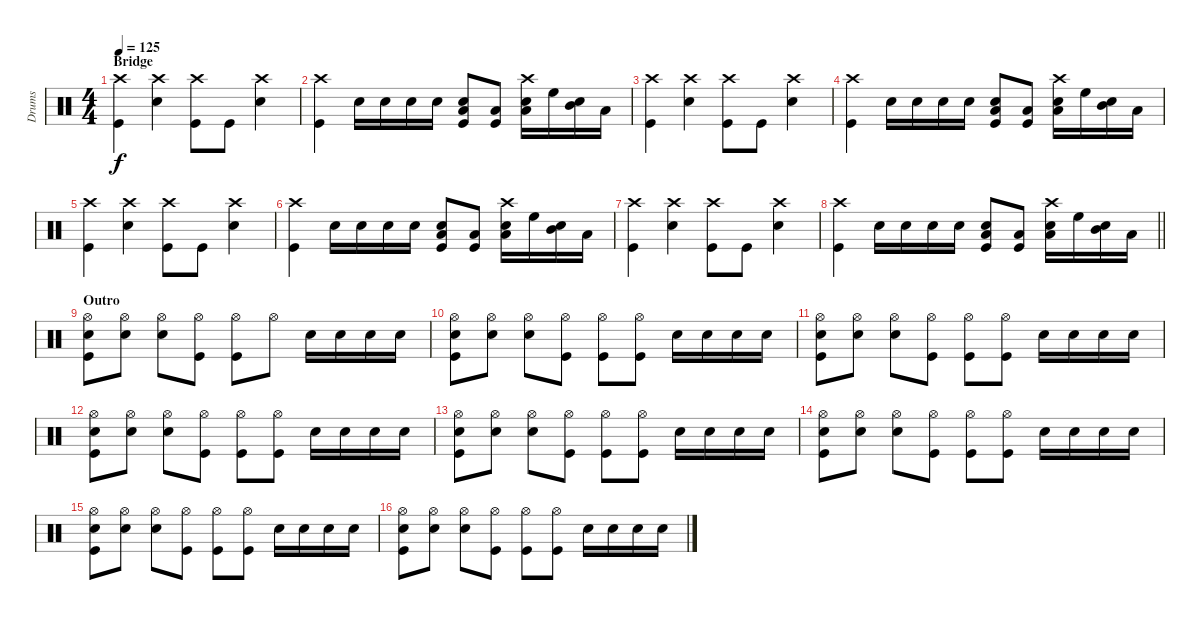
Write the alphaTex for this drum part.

\track ("Drums" "Drums") {instrument percussion}
\staff {score}
\articulation defaults
\ts (4 4)
\section ("" "Bridge")
\tempo 125
\clef neutral
\ks c
("Crash high (hit)" "Kick (hit)").4{dy f} ("Crash high (hit)" "Electric Snare (hit)").4 ("Crash high (hit)" "Kick (hit)").8 "Kick (hit)".8 ("Crash high (hit)" "Electric Snare (hit)").4 |
("Crash high (hit)" "Kick (hit)").4 "Electric Snare (hit)".16 "Electric Snare (hit)".16 "Electric Snare (hit)".16 "Electric Snare (hit)".16 ("Low Tom (hit)" "Electric Snare (hit)" "Kick (hit)").8 ("Low Tom (hit)" "Kick (hit)").8 ("Crash high (hit)" "Low Tom (hit)" "Electric Snare (hit)").16 "High Floor Tom (hit)".16 ("Mid Tom (hit)" "Electric Snare (hit)").16 "Low Tom (hit)".16 |
("Crash high (hit)" "Kick (hit)").4 ("Crash high (hit)" "Electric Snare (hit)").4 ("Crash high (hit)" "Kick (hit)").8 "Kick (hit)".8 ("Crash high (hit)" "Electric Snare (hit)").4 |
("Crash high (hit)" "Kick (hit)").4 "Electric Snare (hit)".16 "Electric Snare (hit)".16 "Electric Snare (hit)".16 "Electric Snare (hit)".16 ("Low Tom (hit)" "Electric Snare (hit)" "Kick (hit)").8 ("Low Tom (hit)" "Kick (hit)").8 ("Crash high (hit)" "Low Tom (hit)" "Electric Snare (hit)").16 "High Floor Tom (hit)".16 ("Mid Tom (hit)" "Electric Snare (hit)").16 "Low Tom (hit)".16 |
("Crash high (hit)" "Kick (hit)").4 ("Crash high (hit)" "Electric Snare (hit)").4 ("Crash high (hit)" "Kick (hit)").8 "Kick (hit)".8 ("Crash high (hit)" "Electric Snare (hit)").4 |
("Crash high (hit)" "Kick (hit)").4 "Electric Snare (hit)".16 "Electric Snare (hit)".16 "Electric Snare (hit)".16 "Electric Snare (hit)".16 ("Low Tom (hit)" "Electric Snare (hit)" "Kick (hit)").8 ("Low Tom (hit)" "Kick (hit)").8 ("Crash high (hit)" "Low Tom (hit)" "Electric Snare (hit)").16 "High Floor Tom (hit)".16 ("Mid Tom (hit)" "Electric Snare (hit)").16 "Low Tom (hit)".16 |
("Crash high (hit)" "Kick (hit)").4 ("Crash high (hit)" "Electric Snare (hit)").4 ("Crash high (hit)" "Kick (hit)").8 "Kick (hit)".8 ("Crash high (hit)" "Electric Snare (hit)").4 |
\barLineRight lightlight
("Crash high (hit)" "Kick (hit)").4 "Electric Snare (hit)".16 "Electric Snare (hit)".16 "Electric Snare (hit)".16 "Electric Snare (hit)".16 ("Low Tom (hit)" "Electric Snare (hit)" "Kick (hit)").8 ("Low Tom (hit)" "Kick (hit)").8 ("Crash high (hit)" "Low Tom (hit)" "Electric Snare (hit)").16 "High Floor Tom (hit)".16 ("Mid Tom (hit)" "Electric Snare (hit)").16 "Low Tom (hit)".16 |
\section ("" "Outro")
("Hi-Hat (open)" "Electric Snare (hit)" "Kick (hit)").8 ("Hi-Hat (open)" "Electric Snare (hit)").8 ("Hi-Hat (open)" "Electric Snare (hit)").8 ("Hi-Hat (open)" "Kick (hit)").8 ("Hi-Hat (open)" "Kick (hit)").8 "Hi-Hat (open)".8 "Electric Snare (hit)".16 "Electric Snare (hit)".16 "Electric Snare (hit)".16 "Electric Snare (hit)".16 |
("Hi-Hat (open)" "Electric Snare (hit)" "Kick (hit)").8 ("Hi-Hat (open)" "Electric Snare (hit)").8 ("Hi-Hat (open)" "Electric Snare (hit)").8 ("Hi-Hat (open)" "Kick (hit)").8 ("Hi-Hat (open)" "Kick (hit)").8 ("Hi-Hat (open)" "Kick (hit)").8 "Electric Snare (hit)".16 "Electric Snare (hit)".16 "Electric Snare (hit)".16 "Electric Snare (hit)".16 |
("Hi-Hat (open)" "Electric Snare (hit)" "Kick (hit)").8 ("Hi-Hat (open)" "Electric Snare (hit)").8 ("Hi-Hat (open)" "Electric Snare (hit)").8 ("Hi-Hat (open)" "Kick (hit)").8 ("Hi-Hat (open)" "Kick (hit)").8 ("Hi-Hat (open)" "Kick (hit)").8 "Electric Snare (hit)".16 "Electric Snare (hit)".16 "Electric Snare (hit)".16 "Electric Snare (hit)".16 |
("Hi-Hat (open)" "Electric Snare (hit)" "Kick (hit)").8 ("Hi-Hat (open)" "Electric Snare (hit)").8 ("Hi-Hat (open)" "Electric Snare (hit)").8 ("Hi-Hat (open)" "Kick (hit)").8 ("Hi-Hat (open)" "Kick (hit)").8 ("Hi-Hat (open)" "Kick (hit)").8 "Electric Snare (hit)".16 "Electric Snare (hit)".16 "Electric Snare (hit)".16 "Electric Snare (hit)".16 |
("Hi-Hat (open)" "Electric Snare (hit)" "Kick (hit)").8 ("Hi-Hat (open)" "Electric Snare (hit)").8 ("Hi-Hat (open)" "Electric Snare (hit)").8 ("Hi-Hat (open)" "Kick (hit)").8 ("Hi-Hat (open)" "Kick (hit)").8 ("Hi-Hat (open)" "Kick (hit)").8 "Electric Snare (hit)".16 "Electric Snare (hit)".16 "Electric Snare (hit)".16 "Electric Snare (hit)".16 |
("Hi-Hat (open)" "Electric Snare (hit)" "Kick (hit)").8 ("Hi-Hat (open)" "Electric Snare (hit)").8 ("Hi-Hat (open)" "Electric Snare (hit)").8 ("Hi-Hat (open)" "Kick (hit)").8 ("Hi-Hat (open)" "Kick (hit)").8 ("Hi-Hat (open)" "Kick (hit)").8 "Electric Snare (hit)".16 "Electric Snare (hit)".16 "Electric Snare (hit)".16 "Electric Snare (hit)".16 |
("Hi-Hat (open)" "Electric Snare (hit)" "Kick (hit)").8 ("Hi-Hat (open)" "Electric Snare (hit)").8 ("Hi-Hat (open)" "Electric Snare (hit)").8 ("Hi-Hat (open)" "Kick (hit)").8 ("Hi-Hat (open)" "Kick (hit)").8 ("Hi-Hat (open)" "Kick (hit)").8 "Electric Snare (hit)".16 "Electric Snare (hit)".16 "Electric Snare (hit)".16 "Electric Snare (hit)".16 |
("Hi-Hat (open)" "Electric Snare (hit)" "Kick (hit)").8 ("Hi-Hat (open)" "Electric Snare (hit)").8 ("Hi-Hat (open)" "Electric Snare (hit)").8 ("Hi-Hat (open)" "Kick (hit)").8 ("Hi-Hat (open)" "Kick (hit)").8 ("Hi-Hat (open)" "Kick (hit)").8 "Electric Snare (hit)".16 "Electric Snare (hit)".16 "Electric Snare (hit)".16 "Electric Snare (hit)".16
